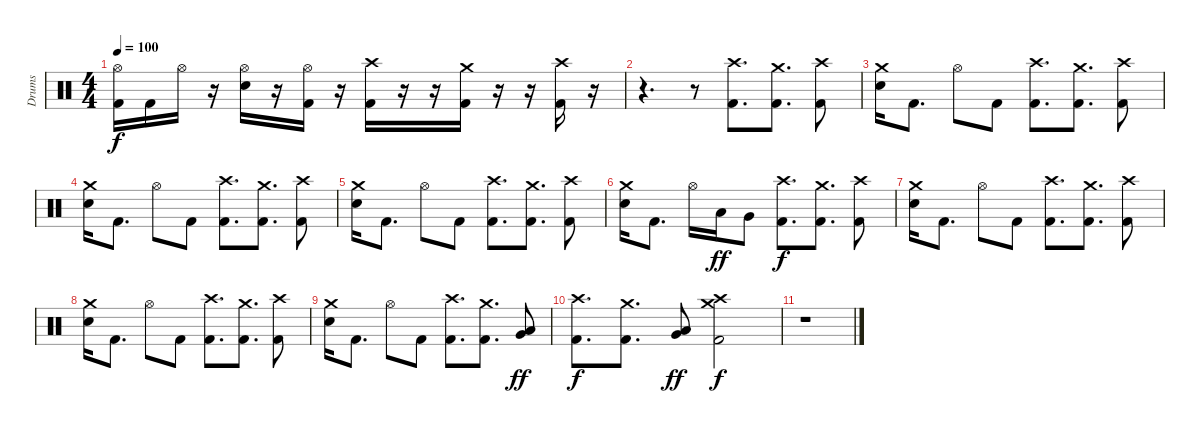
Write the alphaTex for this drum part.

\track ("Drums" "Drums") {instrument percussion}
\staff {score}
\articulation defaults
\ts (4 4)
\tempo 100
\clef neutral
\ks c
("Hi-Hat (open)" "Kick (hit) 2").16{dy f} "Kick (hit) 2".16 "Hi-Hat (open)".16 r.16 ("Hi-Hat (open)" "Snare (hit) 2").16 r.16 ("Hi-Hat (open)" "Kick (hit) 2").16 r.16 ("Crash high (hit)" "Kick (hit) 2").16 r.16 r.16 ("Crash medium (hit)" "Kick (hit) 2").16 r.16 r.16 ("Crash high (hit)" "Kick (hit) 2").16 r.16 |
r.4{d} r.8 ("Crash high (hit)" "Kick (hit) 2").8{d} ("Crash medium (hit)" "Kick (hit) 2").8{d} ("Crash high (hit)" "Kick (hit) 2").8 |
("Crash medium (hit)" "Snare (hit) 2").16 "Kick (hit) 2".8{d} "Hi-Hat (open)".8 "Kick (hit) 2".8 ("Crash high (hit)" "Kick (hit) 2").8{d} ("Crash medium (hit)" "Kick (hit) 2").8{d} ("Crash high (hit)" "Kick (hit) 2").8 |
("Crash medium (hit)" "Snare (hit) 2").16 "Kick (hit) 2".8{d} "Hi-Hat (open)".8 "Kick (hit) 2".8 ("Crash high (hit)" "Kick (hit) 2").8{d} ("Crash medium (hit)" "Kick (hit) 2").8{d} ("Crash high (hit)" "Kick (hit) 2").8 |
("Crash medium (hit)" "Snare (hit) 2").16 "Kick (hit) 2".8{d} "Hi-Hat (open)".8 "Kick (hit) 2".8 ("Crash high (hit)" "Kick (hit) 2").8{d} ("Crash medium (hit)" "Kick (hit) 2").8{d} ("Crash high (hit)" "Kick (hit) 2").8 |
("Crash medium (hit)" "Snare (hit) 2").16 "Kick (hit) 2".8{d} "Hi-Hat (open)".16 "Low Tom (hit)".16{dy ff} "Very Low Tom (hit)".8 ("Crash high (hit)" "Kick (hit) 2").8{d dy f} ("Crash medium (hit)" "Kick (hit) 2").8{d} ("Crash high (hit)" "Kick (hit) 2").8 |
("Crash medium (hit)" "Snare (hit) 2").16 "Kick (hit) 2".8{d} "Hi-Hat (open)".8 "Kick (hit) 2".8 ("Crash high (hit)" "Kick (hit) 2").8{d} ("Crash medium (hit)" "Kick (hit) 2").8{d} ("Crash high (hit)" "Kick (hit) 2").8 |
("Crash medium (hit)" "Snare (hit) 2").16 "Kick (hit) 2".8{d} "Hi-Hat (open)".8 "Kick (hit) 2".8 ("Crash high (hit)" "Kick (hit) 2").8{d} ("Crash medium (hit)" "Kick (hit) 2").8{d} ("Crash high (hit)" "Kick (hit) 2").8 |
("Crash medium (hit)" "Snare (hit) 2").16 "Kick (hit) 2".8{d} "Hi-Hat (open)".8 "Kick (hit) 2".8 ("Crash high (hit)" "Kick (hit) 2").8{d} ("Crash medium (hit)" "Kick (hit) 2").8{d} ("Low Tom (hit)" "Very Low Tom (hit)").8{dy ff} |
("Crash high (hit)" "Kick (hit) 2").8{d dy f} ("Crash medium (hit)" "Kick (hit) 2").8{d} ("Low Tom (hit)" "Very Low Tom (hit)").8{dy ff} ("Crash medium (hit)" "Crash high (hit)" "Kick (hit) 2").2{dy f} |
r.1
